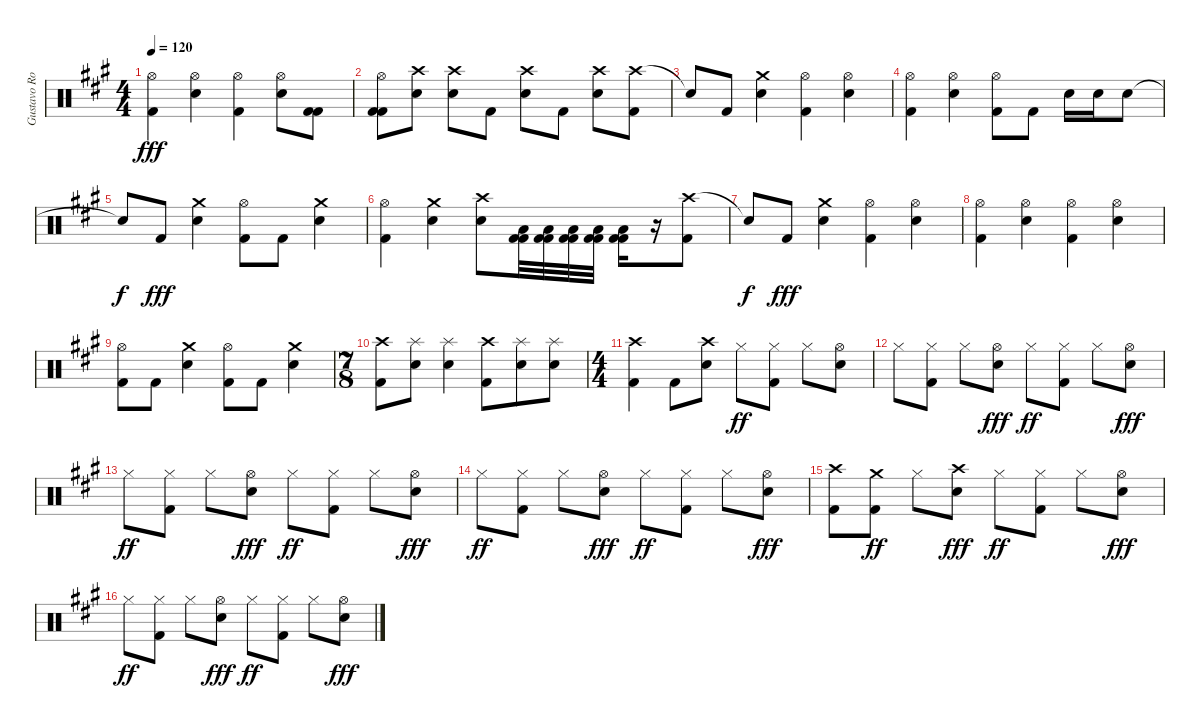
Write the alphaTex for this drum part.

\track ("Gustavo Rowek" "Gustavo Ro") {instrument percussion}
\staff {score}
\articulation defaults
\ts (4 4)
\tempo 120
\clef neutral
\ks a
("Hi-Hat (open)" "Kick (hit) 2").4{dy fff} ("Hi-Hat (open)" "Snare (hit) 2").4 ("Hi-Hat (open)" "Kick (hit) 2").4 ("Hi-Hat (open)" "Snare (hit) 2").8 ("Kick (hit) 2" "Kick (hit) 2").8 |
("Hi-Hat (open)" "Kick (hit) 2" "Kick (hit) 2").8 ("Crash high (hit)" "Snare (hit) 2").8 ("Crash high (hit)" "Snare (hit) 2").8 "Kick (hit) 2".8 ("Crash high (hit)" "Snare (hit) 2").8 "Kick (hit) 2".8 ("Crash high (hit)" "Snare (hit) 2").8 ("Crash high (hit)" "Kick (hit) 2").8 |
"Snare (hit)"{t}.8 "Kick (hit) 2".8 ("Crash medium (hit)" "Snare (hit) 2").4 ("Hi-Hat (open)" "Kick (hit) 2").4 ("Hi-Hat (open)" "Snare (hit) 2").4 |
("Hi-Hat (open)" "Kick (hit) 2").4 ("Hi-Hat (open)" "Snare (hit) 2").4 ("Hi-Hat (open)" "Kick (hit) 2").8 "Kick (hit) 2".8 "Snare (hit) 2".16 "Snare (hit) 2".16 "Snare (hit) 2".8 |
"Snare (hit)"{t}.8{dy f} "Kick (hit) 2".8{dy fff} ("Crash medium (hit)" "Snare (hit) 2").4 ("Hi-Hat (open)" "Kick (hit) 2").8 "Kick (hit) 2".8 ("Crash medium (hit)" "Snare (hit) 2").4 |
("Hi-Hat (open)" "Kick (hit) 2").4 ("Crash medium (hit)" "Snare (hit) 2").4 ("Crash high (hit)" "Snare (hit) 2").8 ("Low Tom (hit)" "Kick (hit) 2" "Kick (hit) 2").32 ("Low Tom (hit)" "Kick (hit) 2" "Kick (hit) 2").32 ("Low Tom (hit)" "Kick (hit) 2" "Kick (hit) 2").32 ("Low Tom (hit)" "Kick (hit) 2" "Kick (hit) 2").32 ("Low Tom (hit)" "Kick (hit) 2" "Kick (hit) 2").16 r.16 ("Crash high (hit)" "Kick (hit) 2").8 |
"Snare (hit)"{t}.8{dy f} "Kick (hit) 2".8{dy fff} ("Crash medium (hit)" "Snare (hit) 2").4 ("Hi-Hat (open)" "Kick (hit) 2").4 ("Hi-Hat (open)" "Snare (hit) 2").4 |
("Hi-Hat (open)" "Kick (hit) 2").4 ("Hi-Hat (open)" "Snare (hit) 2").4 ("Hi-Hat (open)" "Kick (hit) 2").4 ("Hi-Hat (open)" "Snare (hit) 2").4 |
("Hi-Hat (open)" "Kick (hit) 2").8 "Kick (hit) 2".8 ("Crash medium (hit)" "Snare (hit) 2").4 ("Hi-Hat (open)" "Kick (hit) 2").8 "Kick (hit) 2".8 ("Crash medium (hit)" "Snare (hit) 2").4 |
\ts (7 8)
("Crash high (hit)" "Kick (hit) 2").8 ("Splash (hit)" "Snare (hit) 2").8 ("Splash (hit)" "Snare (hit) 2").4 ("Crash high (hit)" "Kick (hit) 2").8 ("Splash (hit)" "Snare (hit) 2").8 ("Splash (hit)" "Snare (hit) 2").8 |
\ts (4 4)
("Crash high (hit)" "Kick (hit) 2").4 "Kick (hit) 2".8 ("Crash high (hit)" "Snare (hit) 2").8 "Hi-Hat (closed)".8{dy ff} ("Hi-Hat (closed)" "Kick (hit) 2").8 "Hi-Hat (closed)".8 ("Hi-Hat (open)" "Snare (hit) 2").8 |
"Hi-Hat (closed)".8 ("Hi-Hat (closed)" "Kick (hit) 2").8 "Hi-Hat (closed)".8 ("Hi-Hat (open)" "Snare (hit) 2").8{dy fff} "Hi-Hat (closed)".8{dy ff} ("Hi-Hat (closed)" "Kick (hit) 2").8 "Hi-Hat (closed)".8 ("Hi-Hat (open)" "Snare (hit) 2").8{dy fff} |
"Hi-Hat (closed)".8{dy ff} ("Hi-Hat (closed)" "Kick (hit) 2").8 "Hi-Hat (closed)".8 ("Hi-Hat (open)" "Snare (hit) 2").8{dy fff} "Hi-Hat (closed)".8{dy ff} ("Hi-Hat (closed)" "Kick (hit) 2").8 "Hi-Hat (closed)".8 ("Hi-Hat (open)" "Snare (hit) 2").8{dy fff} |
"Hi-Hat (closed)".8{dy ff} ("Hi-Hat (closed)" "Kick (hit) 2").8 "Hi-Hat (closed)".8 ("Hi-Hat (open)" "Snare (hit) 2").8{dy fff} "Hi-Hat (closed)".8{dy ff} ("Hi-Hat (closed)" "Kick (hit) 2").8 "Hi-Hat (closed)".8 ("Hi-Hat (open)" "Snare (hit) 2").8{dy fff} |
("Crash high (hit)" "Kick (hit) 2").8 ("Crash medium (hit)" "Kick (hit) 2").8{dy ff} "Hi-Hat (closed)".8 ("Crash high (hit)" "Snare (hit) 2").8{dy fff} "Hi-Hat (closed)".8{dy ff} ("Hi-Hat (closed)" "Kick (hit) 2").8 "Hi-Hat (closed)".8 ("Hi-Hat (open)" "Snare (hit) 2").8{dy fff} |
"Hi-Hat (closed)".8{dy ff} ("Hi-Hat (closed)" "Kick (hit) 2").8 "Hi-Hat (closed)".8 ("Hi-Hat (open)" "Snare (hit) 2").8{dy fff} "Hi-Hat (closed)".8{dy ff} ("Hi-Hat (closed)" "Kick (hit) 2").8 "Hi-Hat (closed)".8 ("Hi-Hat (open)" "Snare (hit) 2").8{dy fff}
